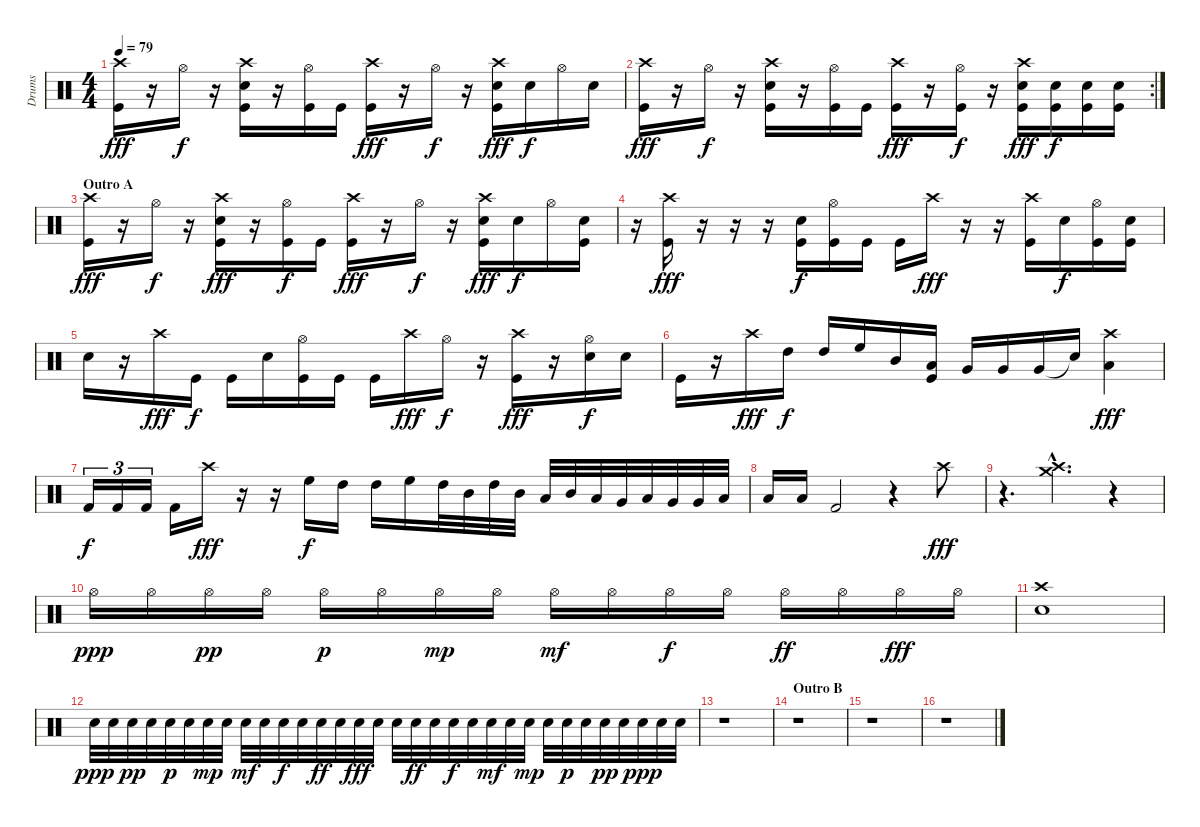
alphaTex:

\track ("Drums" "Drums") {instrument percussion}
\staff {score}
\articulation defaults
\ts (4 4)
\tempo 79
\clef neutral
\ks c
("Crash high (hit)" "Kick (hit)").16{dy fff} r.16 "Hi-Hat (open)".16{dy f} r.16 ("Crash high (hit)" "Electric Snare (hit)" "Kick (hit)").16 r.16 ("Hi-Hat (open)" "Kick (hit)").16 "Kick (hit)".16 ("Crash high (hit)" "Kick (hit)").16{dy fff} r.16 "Hi-Hat (open)".16{dy f} r.16 ("Crash high (hit)" "Electric Snare (hit)" "Kick (hit)").16{dy fff} "Electric Snare (hit)".16{dy f} "Hi-Hat (open)".16 "Electric Snare (hit)".16 |
\rc 2
("Crash high (hit)" "Kick (hit)").16{dy fff} r.16 "Hi-Hat (open)".16{dy f} r.16 ("Crash high (hit)" "Electric Snare (hit)" "Kick (hit)").16 r.16 ("Hi-Hat (open)" "Kick (hit)").16 "Kick (hit)".16 ("Crash high (hit)" "Kick (hit)").16{dy fff} r.16 ("Hi-Hat (open)" "Kick (hit)").16{dy f} r.16 ("Crash high (hit)" "Electric Snare (hit)" "Kick (hit)").16{dy fff} ("Electric Snare (hit)" "Kick (hit)").16{dy f} ("Electric Snare (hit)" "Kick (hit)").16 ("Electric Snare (hit)" "Kick (hit)").16 |
\section ("" "Outro A")
("Crash high (hit)" "Kick (hit)").16{dy fff} r.16 "Hi-Hat (open)".16{dy f} r.16 ("Crash high (hit)" "Electric Snare (hit)" "Kick (hit)").16{dy fff} r.16 ("Hi-Hat (open)" "Kick (hit)").16{dy f} "Kick (hit)".16 ("Crash high (hit)" "Kick (hit)").16{dy fff} r.16 "Hi-Hat (open)".16{dy f} r.16 ("Crash high (hit)" "Electric Snare (hit)" "Kick (hit)").16{dy fff} "Electric Snare (hit)".16{dy f} "Hi-Hat (open)".16 ("Electric Snare (hit)" "Kick (hit)").16 |
r.16 ("Crash high (hit)" "Kick (hit)").16{dy fff} r.16 r.16 r.16 ("Electric Snare (hit)" "Kick (hit)").16{dy f} ("Hi-Hat (open)" "Kick (hit)").16 "Kick (hit)".16 "Kick (hit)".16 "Crash high (hit)".16{dy fff} r.16 r.16 ("Crash high (hit)" "Kick (hit)").16 "Electric Snare (hit)".16{dy f} ("Hi-Hat (open)" "Kick (hit)").16 ("Electric Snare (hit)" "Kick (hit)").16 |
"Electric Snare (hit)".16 r.16 "Crash high (hit)".16{dy fff} "Kick (hit)".16{dy f} "Kick (hit)".16 "Electric Snare (hit)".16 ("Hi-Hat (open)" "Kick (hit)").16 "Kick (hit)".16 "Kick (hit)".16 "Crash high (hit)".16{dy fff} "Hi-Hat (open)".16{dy f} r.16 ("Crash high (hit)" "Kick (hit)").16{dy fff} r.16 ("Hi-Hat (open)" "Electric Snare (hit)").16{dy f} "Electric Snare (hit)".16 |
"Kick (hit)".16 r.16 "Crash high (hit)".16{dy fff} "High Tom (hit)".16{dy f} "High Tom (hit)".16 "High Floor Tom (hit)".16 "Mid Tom (hit)".16 ("Low Tom (hit)" "Kick (hit)").16 "Very Low Tom (hit)".16 "Very Low Tom (hit)".16 "Very Low Tom (hit)".16 "Snare (hit)"{t}.16 ("Crash high (hit)" "Low Floor Tom (hit)").4{dy fff} |
"Kick (hit) 2".16{tu (3 2) dy f} "Kick (hit) 2".16{tu (3 2)} "Kick (hit) 2".16{tu (3 2)} "Kick (hit) 2".16 "Crash high (hit)".16{dy fff} r.16 r.16 "High Floor Tom (hit)".16{dy f} "High Tom (hit)".16 "High Tom (hit)".16 "High Floor Tom (hit)".16 "High Tom (hit)".32 "Mid Tom (hit)".32 "High Tom (hit)".32 "Mid Tom (hit)".32 "Low Tom (hit)".32 "Mid Tom (hit)".32 "Low Tom (hit)".32 "Very Low Tom (hit)".32 "Low Tom (hit)".32 "Very Low Tom (hit)".32 "Very Low Tom (hit)".32 "Low Floor Tom (hit)".32 |
"Low Floor Tom (hit)".16 "Low Floor Tom (hit)".16 "Kick (hit) 2".2 r.4 "Crash high (hit)".8{dy fff} |
r.4{d} ("Crash high (hit)"{hac} "Crash medium (hit)"{hac}).4{d} r.4 |
"Hi-Hat (open)".16{dy ppp} "Hi-Hat (open)".16 "Hi-Hat (open)".16{dy pp} "Hi-Hat (open)".16 "Hi-Hat (open)".16{dy p} "Hi-Hat (open)".16 "Hi-Hat (open)".16{dy mp} "Hi-Hat (open)".16 "Hi-Hat (open)".16{dy mf} "Hi-Hat (open)".16 "Hi-Hat (open)".16{dy f} "Hi-Hat (open)".16 "Hi-Hat (open)".16{dy ff} "Hi-Hat (open)".16 "Hi-Hat (open)".16{dy fff} "Hi-Hat (open)".16 |
("Crash high (hit)" "Electric Snare (hit)").1 |
"Electric Snare (hit)".32{dy ppp} "Electric Snare (hit)".32 "Electric Snare (hit)".32{dy pp} "Electric Snare (hit)".32 "Electric Snare (hit)".32{dy p} "Electric Snare (hit)".32 "Electric Snare (hit)".32{dy mp} "Electric Snare (hit)".32 "Electric Snare (hit)".32{dy mf} "Electric Snare (hit)".32 "Electric Snare (hit)".32{dy f} "Electric Snare (hit)".32 "Electric Snare (hit)".32{dy ff} "Electric Snare (hit)".32 "Electric Snare (hit)".32{dy fff} "Electric Snare (hit)".32 "Electric Snare (hit)".32 "Electric Snare (hit)".32{dy ff} "Electric Snare (hit)".32 "Electric Snare (hit)".32{dy f} "Electric Snare (hit)".32 "Electric Snare (hit)".32{dy mf} "Electric Snare (hit)".32 "Electric Snare (hit)".32{dy mp} "Electric Snare (hit)".32 "Electric Snare (hit)".32{dy p} "Electric Snare (hit)".32 "Electric Snare (hit)".32{dy pp} "Electric Snare (hit)".32 "Electric Snare (hit)".32{dy ppp} "Electric Snare (hit)".32 "Electric Snare (hit)".32 |
r.1 |
\section ("" "Outro B")
r.1 |
r.1 |
r.1
